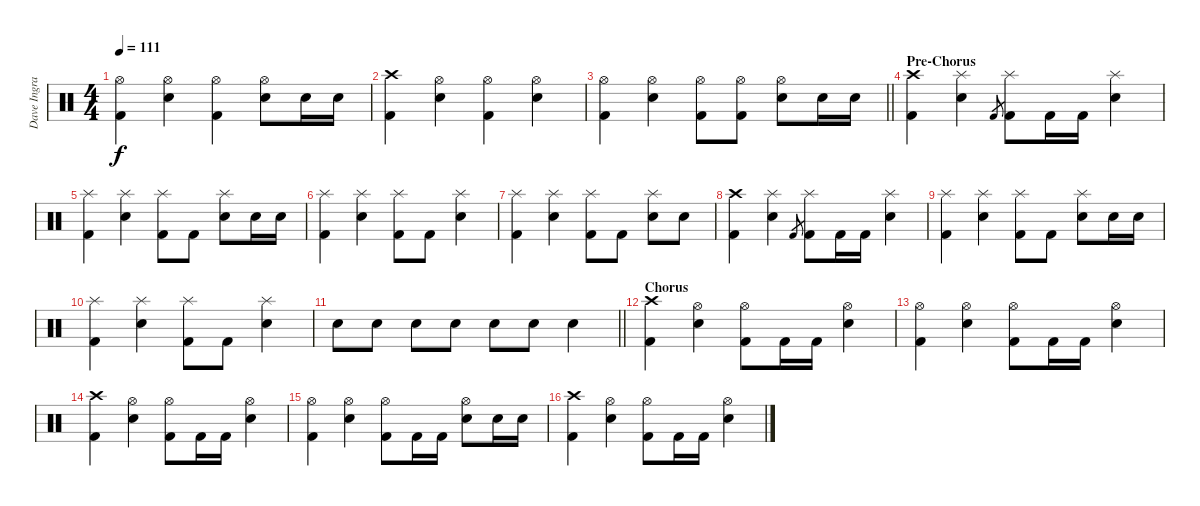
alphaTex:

\track ("Dave Ingraham" "Dave Ingra") {instrument percussion}
\staff {score}
\articulation defaults
\ts (4 4)
\tempo 111
\clef neutral
\ks c
("Hi-Hat (open)" "Kick (hit) 2").4{dy f} ("Hi-Hat (open)" "Electric Snare (hit)").4 ("Hi-Hat (open)" "Kick (hit) 2").4 ("Hi-Hat (open)" "Electric Snare (hit)").8 "Electric Snare (hit)".16 "Electric Snare (hit)".16 |
("Crash high (hit)" "Kick (hit) 2").4 ("Hi-Hat (open)" "Electric Snare (hit)").4 ("Hi-Hat (open)" "Kick (hit) 2").4 ("Hi-Hat (open)" "Electric Snare (hit)").4 |
\barLineRight lightlight
("Hi-Hat (open)" "Kick (hit) 2").4 ("Hi-Hat (open)" "Electric Snare (hit)").4 ("Hi-Hat (open)" "Kick (hit) 2").8 ("Hi-Hat (open)" "Kick (hit) 2").8 ("Hi-Hat (open)" "Electric Snare (hit)").8 "Electric Snare (hit)".16 "Electric Snare (hit)".16 |
\section ("" "Pre-Chorus")
("Crash high (hit)" "Kick (hit) 2").4 ("Splash (hit)" "Electric Snare (hit)").4 "Kick (hit) 2".8{gr} ("Splash (hit)" "Kick (hit) 2").8 "Kick (hit) 2".16 "Kick (hit) 2".16 ("Splash (hit)" "Electric Snare (hit)").4 |
("Splash (hit)" "Kick (hit) 2").4 ("Splash (hit)" "Electric Snare (hit)").4 ("Splash (hit)" "Kick (hit) 2").8 "Kick (hit) 2".8 ("Splash (hit)" "Electric Snare (hit)").8 "Electric Snare (hit)".16 "Electric Snare (hit)".16 |
("Splash (hit)" "Kick (hit) 2").4 ("Splash (hit)" "Electric Snare (hit)").4 ("Splash (hit)" "Kick (hit) 2").8 "Kick (hit) 2".8 ("Splash (hit)" "Electric Snare (hit)").4 |
("Splash (hit)" "Kick (hit) 2").4 ("Splash (hit)" "Electric Snare (hit)").4 ("Splash (hit)" "Kick (hit) 2").8 "Kick (hit) 2".8 ("Splash (hit)" "Electric Snare (hit)").8 "Electric Snare (hit)".8 |
("Crash high (hit)" "Kick (hit) 2").4 ("Splash (hit)" "Electric Snare (hit)").4 "Kick (hit) 2".8{gr} ("Splash (hit)" "Kick (hit) 2").8 "Kick (hit) 2".16 "Kick (hit) 2".16 ("Splash (hit)" "Electric Snare (hit)").4 |
("Splash (hit)" "Kick (hit) 2").4 ("Splash (hit)" "Electric Snare (hit)").4 ("Splash (hit)" "Kick (hit) 2").8 "Kick (hit) 2".8 ("Splash (hit)" "Electric Snare (hit)").8 "Electric Snare (hit)".16 "Electric Snare (hit)".16 |
("Splash (hit)" "Kick (hit) 2").4 ("Splash (hit)" "Electric Snare (hit)").4 ("Splash (hit)" "Kick (hit) 2").8 "Kick (hit) 2".8 ("Splash (hit)" "Electric Snare (hit)").4 |
\barLineRight lightlight "Electric Snare (hit)".8 "Electric Snare (hit)".8 "Electric Snare (hit)".8 "Electric Snare (hit)".8 "Electric Snare (hit)".8 "Electric Snare (hit)".8 "Electric Snare (hit)".4
|
\section ("" "Chorus")
("Crash high (hit)" "Kick (hit) 2").4 ("Hi-Hat (open)" "Electric Snare (hit)").4 ("Hi-Hat (open)" "Kick (hit) 2").8 "Kick (hit) 2".16 "Kick (hit) 2".16 ("Hi-Hat (open)" "Electric Snare (hit)").4 |
("Hi-Hat (open)" "Kick (hit) 2").4 ("Hi-Hat (open)" "Electric Snare (hit)").4 ("Hi-Hat (open)" "Kick (hit) 2").8 "Kick (hit) 2".16 "Kick (hit) 2".16 ("Hi-Hat (open)" "Electric Snare (hit)").4 |
("Crash high (hit)" "Kick (hit) 2").4 ("Hi-Hat (open)" "Electric Snare (hit)").4 ("Hi-Hat (open)" "Kick (hit) 2").8 "Kick (hit) 2".16 "Kick (hit) 2".16 ("Hi-Hat (open)" "Electric Snare (hit)").4 |
("Hi-Hat (open)" "Kick (hit) 2").4 ("Hi-Hat (open)" "Electric Snare (hit)").4 ("Hi-Hat (open)" "Kick (hit) 2").8 "Kick (hit) 2".16 "Kick (hit) 2".16 ("Hi-Hat (open)" "Electric Snare (hit)").8 "Electric Snare (hit)".16 "Electric Snare (hit)".16 |
("Crash high (hit)" "Kick (hit) 2").4 ("Hi-Hat (open)" "Electric Snare (hit)").4 ("Hi-Hat (open)" "Kick (hit) 2").8 "Kick (hit) 2".16 "Kick (hit) 2".16 ("Hi-Hat (open)" "Electric Snare (hit)").4
